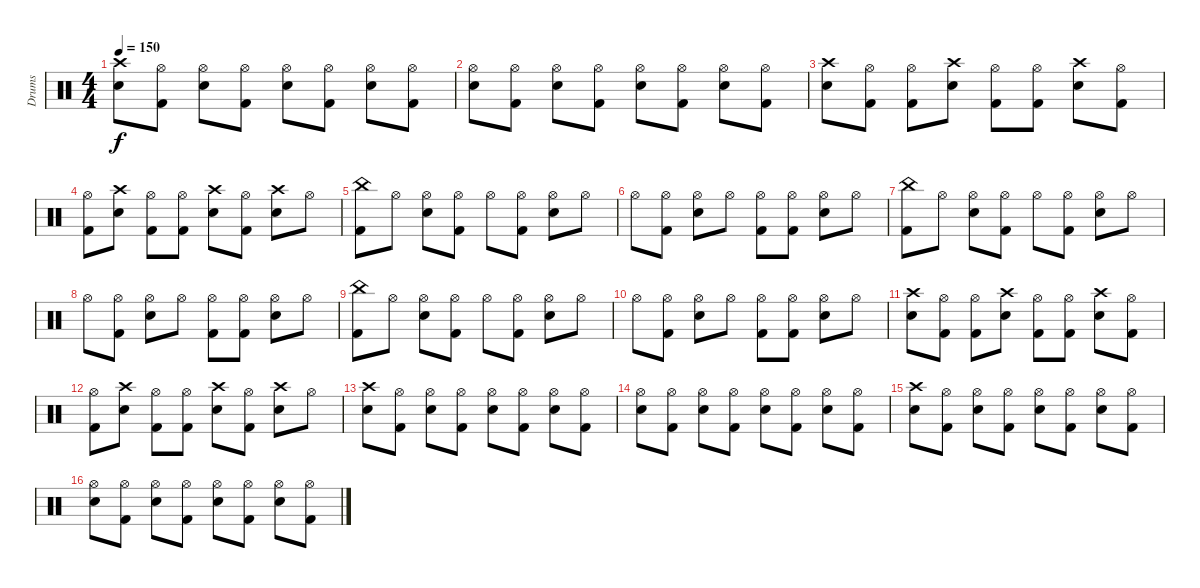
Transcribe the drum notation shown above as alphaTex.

\track ("Drums" "Drums") {instrument percussion}
\staff {score}
\articulation defaults
\ts (4 4)
\tempo 150
\clef neutral
\ks c
("Crash high (hit)" "Snare (hit) 2").8{dy f} ("Hi-Hat (open)" "Kick (hit) 2").8 ("Hi-Hat (open)" "Snare (hit) 2").8 ("Hi-Hat (open)" "Kick (hit) 2").8 ("Hi-Hat (open)" "Snare (hit) 2").8 ("Hi-Hat (open)" "Kick (hit) 2").8 ("Hi-Hat (open)" "Snare (hit) 2").8 ("Hi-Hat (open)" "Kick (hit) 2").8 |
("Hi-Hat (open)" "Snare (hit) 2").8 ("Hi-Hat (open)" "Kick (hit) 2").8 ("Hi-Hat (open)" "Snare (hit) 2").8 ("Hi-Hat (open)" "Kick (hit) 2").8 ("Hi-Hat (open)" "Snare (hit) 2").8 ("Hi-Hat (open)" "Kick (hit) 2").8 ("Hi-Hat (open)" "Snare (hit) 2").8 ("Hi-Hat (open)" "Kick (hit) 2").8 |
("Crash high (hit)" "Snare (hit) 2").8 ("Hi-Hat (open)" "Kick (hit) 2").8 ("Hi-Hat (open)" "Kick (hit) 2").8 ("Crash high (hit)" "Snare (hit) 2").8 ("Hi-Hat (open)" "Kick (hit) 2").8 ("Hi-Hat (open)" "Kick (hit) 2").8 ("Crash high (hit)" "Snare (hit) 2").8 ("Hi-Hat (open)" "Kick (hit) 2").8 |
("Hi-Hat (open)" "Kick (hit) 2").8 ("Crash high (hit)" "Snare (hit) 2").8 ("Hi-Hat (open)" "Kick (hit) 2").8 ("Hi-Hat (open)" "Kick (hit) 2").8 ("Crash high (hit)" "Snare (hit) 2").8 ("Hi-Hat (open)" "Kick (hit) 2").8 ("Crash high (hit)" "Snare (hit) 2").8 "Hi-Hat (open)".8 |
("China (hit)" "Kick (hit) 2").8 "Hi-Hat (open)".8 ("Hi-Hat (open)" "Snare (hit) 2").8 ("Hi-Hat (open)" "Kick (hit) 2").8 "Hi-Hat (open)".8 ("Hi-Hat (open)" "Kick (hit) 2").8 ("Hi-Hat (open)" "Snare (hit) 2").8 "Hi-Hat (open)".8 |
"Hi-Hat (open)".8 ("Hi-Hat (open)" "Kick (hit) 2").8 ("Hi-Hat (open)" "Snare (hit) 2").8 "Hi-Hat (open)".8 ("Hi-Hat (open)" "Kick (hit) 2").8 ("Hi-Hat (open)" "Kick (hit) 2").8 ("Hi-Hat (open)" "Snare (hit) 2").8 "Hi-Hat (open)".8 |
("China (hit)" "Kick (hit) 2").8 "Hi-Hat (open)".8 ("Hi-Hat (open)" "Snare (hit) 2").8 ("Hi-Hat (open)" "Kick (hit) 2").8 "Hi-Hat (open)".8 ("Hi-Hat (open)" "Kick (hit) 2").8 ("Hi-Hat (open)" "Snare (hit) 2").8 "Hi-Hat (open)".8 |
"Hi-Hat (open)".8 ("Hi-Hat (open)" "Kick (hit) 2").8 ("Hi-Hat (open)" "Snare (hit) 2").8 "Hi-Hat (open)".8 ("Hi-Hat (open)" "Kick (hit) 2").8 ("Hi-Hat (open)" "Kick (hit) 2").8 ("Hi-Hat (open)" "Snare (hit) 2").8 "Hi-Hat (open)".8 |
("China (hit)" "Kick (hit) 2").8 "Hi-Hat (open)".8 ("Hi-Hat (open)" "Snare (hit) 2").8 ("Hi-Hat (open)" "Kick (hit) 2").8 "Hi-Hat (open)".8 ("Hi-Hat (open)" "Kick (hit) 2").8 ("Hi-Hat (open)" "Snare (hit) 2").8 "Hi-Hat (open)".8 |
"Hi-Hat (open)".8 ("Hi-Hat (open)" "Kick (hit) 2").8 ("Hi-Hat (open)" "Snare (hit) 2").8 "Hi-Hat (open)".8 ("Hi-Hat (open)" "Kick (hit) 2").8 ("Hi-Hat (open)" "Kick (hit) 2").8 ("Hi-Hat (open)" "Snare (hit) 2").8 "Hi-Hat (open)".8 |
("Crash high (hit)" "Snare (hit) 2").8 ("Hi-Hat (open)" "Kick (hit) 2").8 ("Hi-Hat (open)" "Kick (hit) 2").8 ("Crash high (hit)" "Snare (hit) 2").8 ("Hi-Hat (open)" "Kick (hit) 2").8 ("Hi-Hat (open)" "Kick (hit) 2").8 ("Crash high (hit)" "Snare (hit) 2").8 ("Hi-Hat (open)" "Kick (hit) 2").8 |
("Hi-Hat (open)" "Kick (hit) 2").8 ("Crash high (hit)" "Snare (hit) 2").8 ("Hi-Hat (open)" "Kick (hit) 2").8 ("Hi-Hat (open)" "Kick (hit) 2").8 ("Crash high (hit)" "Snare (hit) 2").8 ("Hi-Hat (open)" "Kick (hit) 2").8 ("Crash high (hit)" "Snare (hit) 2").8 "Hi-Hat (open)".8 |
("Crash high (hit)" "Snare (hit) 2").8 ("Hi-Hat (open)" "Kick (hit) 2").8 ("Hi-Hat (open)" "Snare (hit) 2").8 ("Hi-Hat (open)" "Kick (hit) 2").8 ("Hi-Hat (open)" "Snare (hit) 2").8 ("Hi-Hat (open)" "Kick (hit) 2").8 ("Hi-Hat (open)" "Snare (hit) 2").8 ("Hi-Hat (open)" "Kick (hit) 2").8 |
("Hi-Hat (open)" "Snare (hit) 2").8 ("Hi-Hat (open)" "Kick (hit) 2").8 ("Hi-Hat (open)" "Snare (hit) 2").8 ("Hi-Hat (open)" "Kick (hit) 2").8 ("Hi-Hat (open)" "Snare (hit) 2").8 ("Hi-Hat (open)" "Kick (hit) 2").8 ("Hi-Hat (open)" "Snare (hit) 2").8 ("Hi-Hat (open)" "Kick (hit) 2").8 |
("Crash high (hit)" "Snare (hit) 2").8 ("Hi-Hat (open)" "Kick (hit) 2").8 ("Hi-Hat (open)" "Snare (hit) 2").8 ("Hi-Hat (open)" "Kick (hit) 2").8 ("Hi-Hat (open)" "Snare (hit) 2").8 ("Hi-Hat (open)" "Kick (hit) 2").8 ("Hi-Hat (open)" "Snare (hit) 2").8 ("Hi-Hat (open)" "Kick (hit) 2").8 |
("Hi-Hat (open)" "Snare (hit) 2").8 ("Hi-Hat (open)" "Kick (hit) 2").8 ("Hi-Hat (open)" "Snare (hit) 2").8 ("Hi-Hat (open)" "Kick (hit) 2").8 ("Hi-Hat (open)" "Snare (hit) 2").8 ("Hi-Hat (open)" "Kick (hit) 2").8 ("Hi-Hat (open)" "Snare (hit) 2").8 ("Hi-Hat (open)" "Kick (hit) 2").8
